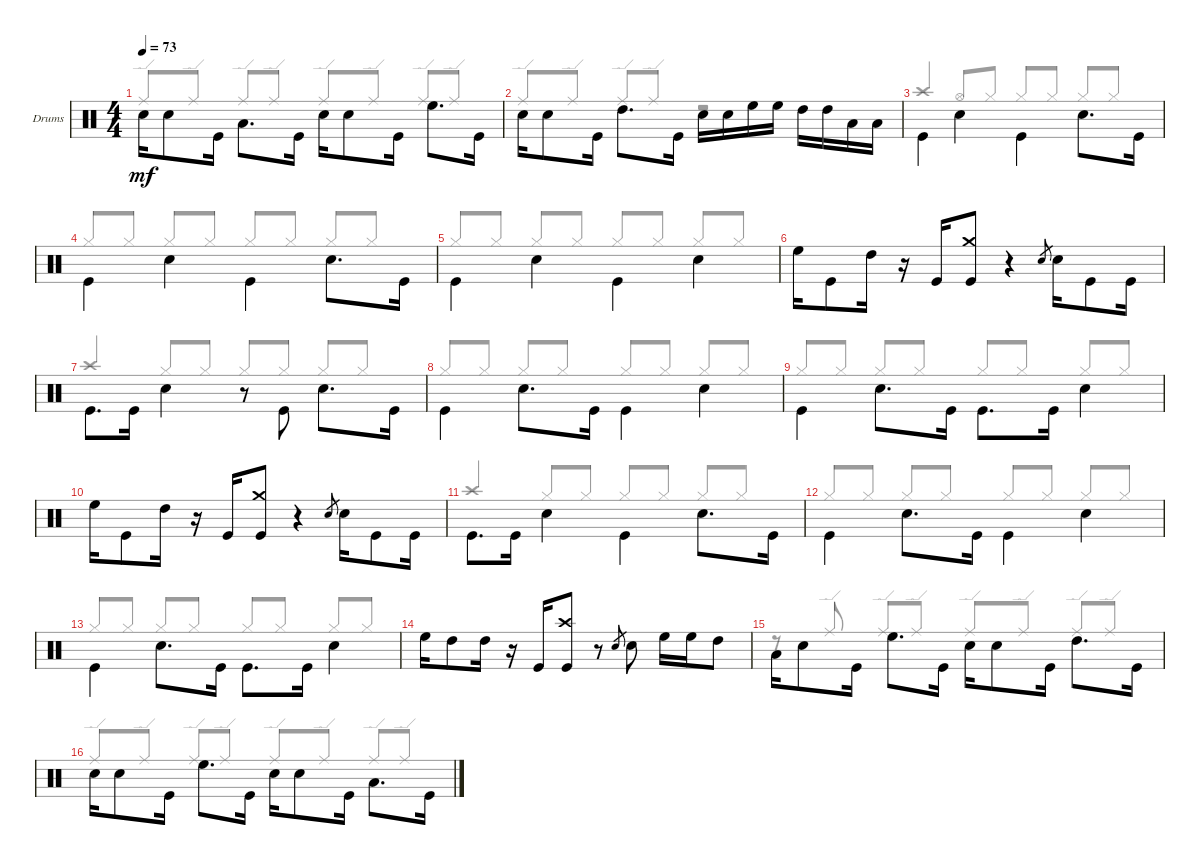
\defaultSystemsLayout 4
\bracketExtendMode groupsimilarinstruments
\firstSystemTrackNameOrientation horizontal
\otherSystemsTrackNameOrientation horizontal
\track ("Drumkit" "Drums") {solo instrument percussion}
\staff {score}
\articulation defaults
\voice
\ts (4 4)
\tempo 73
\clef neutral
\ks c "Snare (hit) 2".16{dy mf beam invert} "Snare (hit) 2".8 "Kick (hit)".16 "Low Tom (hit)".8{d beam invert} "Kick (hit)".16 "Snare (hit) 2".16{beam invert} "Snare (hit) 2".8 "Kick (hit)".16 "High Floor Tom (hit)".8{d beam invert} "Kick (hit)".16
|
"Snare (hit) 2".16{beam invert} "Snare (hit) 2".8 "Kick (hit)".16 "High Tom (hit)".8{d beam invert} "Kick (hit)".16 "Snare (hit) 2".16{beam invert} "Snare (hit) 2".16 "High Floor Tom (hit)".16 "High Floor Tom (hit)".16 "High Tom (hit)".16{beam invert} "High Tom (hit)".16 "Low Tom (hit)".16 "Low Tom (hit)".16 |
"Kick (hit)".4{beam invert} "Snare (hit) 2".4{beam invert} "Kick (hit)".4{beam invert} "Snare (hit) 2".8{d beam invert} "Kick (hit)".16 |
"Kick (hit)".4{beam invert} "Snare (hit) 2".4{beam invert} "Kick (hit)".4{beam invert} "Snare (hit) 2".8{d beam invert} "Kick (hit)".16 |
"Kick (hit)".4{beam invert} "Snare (hit) 2".4{beam invert} "Kick (hit)".4{beam invert} "Snare (hit) 2".4{beam invert} |
"High Floor Tom (hit)".16{beam invert} "Kick (hit)".8 "High Tom (hit)".16 r.16 "Kick (hit)".16{beam invert} ("Kick (hit)" "Crash medium (hit)").8 r.4 "Snare (hit) 2".8{gr} "Snare (hit) 2".16{beam invert} "Kick (hit)".8 "Kick (hit)".16 |
"Kick (hit)".8{d beam invert} "Kick (hit)".16 "Snare (hit) 2".4{beam invert} r.8{beam invert} "Kick (hit)".8{beam invert} "Snare (hit) 2".8{d beam invert} "Kick (hit)".16 |
"Kick (hit)".4{beam invert} "Snare (hit) 2".8{d beam invert} "Kick (hit)".16 "Kick (hit)".4{beam invert} "Snare (hit) 2".4{beam invert} |
"Kick (hit)".4{beam invert} "Snare (hit) 2".8{d beam invert} "Kick (hit)".16 "Kick (hit)".8{d beam invert} "Kick (hit)".16 "Snare (hit) 2".4{beam invert} |
"High Floor Tom (hit)".16{beam invert} "Kick (hit)".8 "High Tom (hit)".16 r.16 "Kick (hit)".16{beam invert} ("Kick (hit)" "Crash medium (hit)").8 r.4 "Snare (hit) 2".8{gr} "Snare (hit) 2".16{beam invert} "Kick (hit)".8 "Kick (hit)".16 |
"Kick (hit)".8{d beam invert} "Kick (hit)".16 "Snare (hit) 2".4{beam invert} "Kick (hit)".4{beam invert} "Snare (hit) 2".8{d beam invert} "Kick (hit)".16 |
"Kick (hit)".4{beam invert} "Snare (hit) 2".8{d beam invert} "Kick (hit)".16 "Kick (hit)".4{beam invert} "Snare (hit) 2".4{beam invert} |
"Kick (hit)".4{beam invert} "Snare (hit) 2".8{d beam invert} "Kick (hit)".16 "Kick (hit)".8{d beam invert} "Kick (hit)".16 "Snare (hit) 2".4{beam invert} |
"High Floor Tom (hit)".16 "High Tom (hit)".8 "High Tom (hit)".16 r.16 "Kick (hit)".16{beam invert} ("Kick (hit)" "Crash high (hit)").8 r.8 "Snare (hit) 2".8{gr} "Snare (hit) 2".8 "High Floor Tom (hit)".16 "High Floor Tom (hit)".16 "High Tom (hit)".8 |
"Low Tom (hit)".16{beam invert} "Snare (hit) 2".8 "Kick (hit)".16 "High Floor Tom (hit)".8{d beam invert} "Kick (hit)".16 "Snare (hit) 2".16{beam invert} "Snare (hit) 2".8 "Kick (hit)".16 "High Tom (hit)".8{d beam invert} "Kick (hit)".16 |
"Snare (hit) 2".16{beam invert} "Snare (hit) 2".8 "Kick (hit)".16 "High Floor Tom (hit)".8{d beam invert} "Kick (hit)".16 "Snare (hit) 2".16{beam invert} "Snare (hit) 2".8 "Kick (hit)".16 "Low Tom (hit)".8{d beam invert} "Kick (hit)".16
\voice
\clef neutral
\ottava regular
\simile none
\ks c "Ride (edge)".8{dy mf beam invert} "Ride (edge)".8 "Ride (edge)".8{beam invert} "Ride (edge)".8 "Ride (edge)".8{beam invert} "Ride (edge)".8 "Ride (edge)".8{beam invert} "Ride (edge)".8
|
"Ride (edge)".8{beam invert} "Ride (edge)".8 "Ride (edge)".8{beam invert} "Ride (edge)".8 r.2{beam invert} |
"Crash high (hit)".4{beam invert} "Hi-Hat (open)".8{beam invert} "Hi-Hat (closed)".8 "Hi-Hat (closed)".8{beam invert} "Hi-Hat (closed)".8 "Hi-Hat (closed)".8{beam invert} "Hi-Hat (closed)".8 |
"Hi-Hat (closed)".8{beam invert} "Hi-Hat (closed)".8 "Hi-Hat (closed)".8 "Hi-Hat (closed)".8{beam invert} "Hi-Hat (closed)".8 "Hi-Hat (closed)".8{beam invert} "Hi-Hat (closed)".8{beam invert} "Hi-Hat (closed)".8 |
"Hi-Hat (closed)".8{beam invert} "Hi-Hat (closed)".8 "Hi-Hat (closed)".8 "Hi-Hat (closed)".8{beam invert} "Hi-Hat (closed)".8 "Hi-Hat (closed)".8{beam invert} "Hi-Hat (closed)".8{beam invert} "Hi-Hat (closed)".8 |
|
"Crash high (hit)".4{beam invert} "Hi-Hat (closed)".8{beam invert} "Hi-Hat (closed)".8 "Hi-Hat (closed)".8{beam invert} "Hi-Hat (closed)".8 "Hi-Hat (closed)".8{beam invert} "Hi-Hat (closed)".8 |
"Hi-Hat (closed)".8{beam invert} "Hi-Hat (closed)".8 "Hi-Hat (closed)".8{beam invert} "Hi-Hat (closed)".8 "Hi-Hat (closed)".8{beam invert} "Hi-Hat (closed)".8 "Hi-Hat (closed)".8{beam invert} "Hi-Hat (closed)".8 |
"Hi-Hat (closed)".8{beam invert} "Hi-Hat (closed)".8 "Hi-Hat (closed)".8{beam invert} "Hi-Hat (closed)".8 "Hi-Hat (closed)".8{beam invert} "Hi-Hat (closed)".8 "Hi-Hat (closed)".8{beam invert} "Hi-Hat (closed)".8 |
|
"Crash high (hit)".4{beam invert} "Hi-Hat (closed)".8{beam invert} "Hi-Hat (closed)".8 "Hi-Hat (closed)".8{beam invert} "Hi-Hat (closed)".8 "Hi-Hat (closed)".8{beam invert} "Hi-Hat (closed)".8 |
"Hi-Hat (closed)".8{beam invert} "Hi-Hat (closed)".8 "Hi-Hat (closed)".8{beam invert} "Hi-Hat (closed)".8 "Hi-Hat (closed)".8{beam invert} "Hi-Hat (closed)".8 "Hi-Hat (closed)".8{beam invert} "Hi-Hat (closed)".8 |
"Hi-Hat (closed)".8{beam invert} "Hi-Hat (closed)".8 "Hi-Hat (closed)".8{beam invert} "Hi-Hat (closed)".8 "Hi-Hat (closed)".8{beam invert} "Hi-Hat (closed)".8 "Hi-Hat (closed)".8{beam invert} "Hi-Hat (closed)".8 |
|
r.8{beam invert} "Ride (edge)".8{beam invert} "Ride (edge)".8{beam invert} "Ride (edge)".8 "Ride (edge)".8{beam invert} "Ride (edge)".8 "Ride (edge)".8{beam invert} "Ride (edge)".8 |
"Ride (edge)".8{beam invert} "Ride (edge)".8 "Ride (edge)".8{beam invert} "Ride (edge)".8 "Ride (edge)".8{beam invert} "Ride (edge)".8 "Ride (edge)".8{beam invert} "Ride (edge)".8
